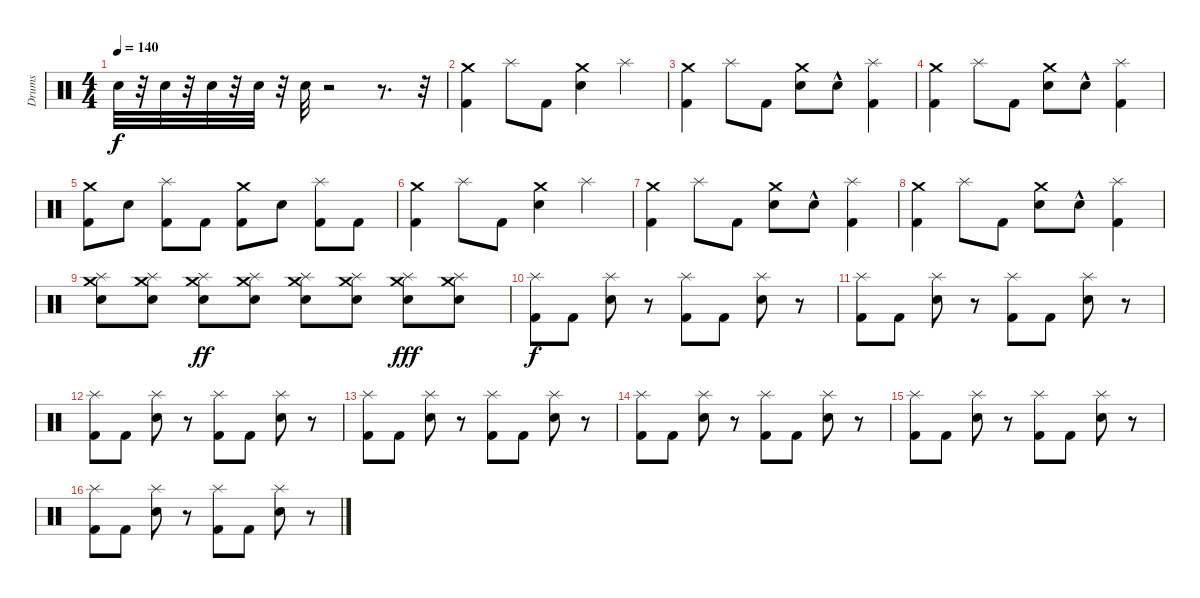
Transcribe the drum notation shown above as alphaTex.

\track ("Drums" "Drums") {instrument percussion}
\staff {score}
\articulation defaults
\ts (4 4)
\tempo 140
\clef neutral
\ks c "Snare (hit) 2".32{dy f}
r.32 "Snare (hit) 2".32 r.32 "Snare (hit) 2".32 r.32 "Snare (hit) 2".32 r.32 "Snare (hit) 2".32 r.2 r.8{d} r.32 |
("Crash medium (hit)" "Kick (hit) 2").4 "Splash (hit)".8 "Kick (hit) 2".8 ("Crash medium (hit)" "Snare (hit) 2").4 "Splash (hit)".4 |
("Crash medium (hit)" "Kick (hit) 2").4 "Splash (hit)".8 "Kick (hit) 2".8 ("Crash medium (hit)" "Snare (hit) 2").8 "Snare (hit) 2"{hac}.8 ("Splash (hit)" "Kick (hit) 2").4 |
("Crash medium (hit)" "Kick (hit) 2").4 "Splash (hit)".8 "Kick (hit) 2".8 ("Crash medium (hit)" "Snare (hit) 2").8 "Snare (hit) 2"{hac}.8 ("Splash (hit)" "Kick (hit) 2").4 |
("Crash medium (hit)" "Kick (hit) 2").8 "Snare (hit) 2".8 ("Splash (hit)" "Kick (hit) 2").8 "Kick (hit) 2".8 ("Crash medium (hit)" "Kick (hit) 2").8 "Snare (hit) 2".8 ("Splash (hit)" "Kick (hit) 2").8 "Kick (hit) 2".8 |
("Crash medium (hit)" "Kick (hit) 2").4 "Splash (hit)".8 "Kick (hit) 2".8 ("Crash medium (hit)" "Snare (hit) 2").4 "Splash (hit)".4 |
("Crash medium (hit)" "Kick (hit) 2").4 "Splash (hit)".8 "Kick (hit) 2".8 ("Crash medium (hit)" "Snare (hit) 2").8 "Snare (hit) 2"{hac}.8 ("Splash (hit)" "Kick (hit) 2").4 |
("Crash medium (hit)" "Kick (hit) 2").4 "Splash (hit)".8 "Kick (hit) 2".8 ("Crash medium (hit)" "Snare (hit) 2").8 "Snare (hit) 2"{hac}.8 ("Splash (hit)" "Kick (hit) 2").4 |
("Snare (hit) 2" "Splash (hit)" "Crash medium (hit)").8 ("Snare (hit) 2" "Splash (hit)" "Crash medium (hit)").8 ("Snare (hit) 2" "Splash (hit)" "Crash medium (hit)").8{dy ff} ("Snare (hit) 2" "Splash (hit)" "Crash medium (hit)").8 ("Snare (hit) 2" "Splash (hit)" "Crash medium (hit)").8 ("Snare (hit) 2" "Splash (hit)" "Crash medium (hit)").8 ("Snare (hit) 2" "Splash (hit)" "Crash medium (hit)").8{dy fff} ("Snare (hit) 2" "Splash (hit)" "Crash medium (hit)").8 |
("Splash (hit)" "Kick (hit) 2").8{dy f} "Kick (hit) 2".8 ("Splash (hit)" "Snare (hit) 2").8 r.8 ("Splash (hit)" "Kick (hit) 2").8 "Kick (hit) 2".8 ("Splash (hit)" "Snare (hit) 2").8 r.8 |
("Splash (hit)" "Kick (hit) 2").8 "Kick (hit) 2".8 ("Splash (hit)" "Snare (hit) 2").8 r.8 ("Splash (hit)" "Kick (hit) 2").8 "Kick (hit) 2".8 ("Splash (hit)" "Snare (hit) 2").8 r.8 |
("Splash (hit)" "Kick (hit) 2").8 "Kick (hit) 2".8 ("Splash (hit)" "Snare (hit) 2").8 r.8 ("Splash (hit)" "Kick (hit) 2").8 "Kick (hit) 2".8 ("Splash (hit)" "Snare (hit) 2").8 r.8 |
("Splash (hit)" "Kick (hit) 2").8 "Kick (hit) 2".8 ("Splash (hit)" "Snare (hit) 2").8 r.8 ("Splash (hit)" "Kick (hit) 2").8 "Kick (hit) 2".8 ("Splash (hit)" "Snare (hit) 2").8 r.8 |
("Splash (hit)" "Kick (hit) 2").8 "Kick (hit) 2".8 ("Splash (hit)" "Snare (hit) 2").8 r.8 ("Splash (hit)" "Kick (hit) 2").8 "Kick (hit) 2".8 ("Splash (hit)" "Snare (hit) 2").8 r.8 |
("Splash (hit)" "Kick (hit) 2").8 "Kick (hit) 2".8 ("Splash (hit)" "Snare (hit) 2").8 r.8 ("Splash (hit)" "Kick (hit) 2").8 "Kick (hit) 2".8 ("Splash (hit)" "Snare (hit) 2").8 r.8 |
("Splash (hit)" "Kick (hit) 2").8 "Kick (hit) 2".8 ("Splash (hit)" "Snare (hit) 2").8 r.8 ("Splash (hit)" "Kick (hit) 2").8 "Kick (hit) 2".8 ("Splash (hit)" "Snare (hit) 2").8 r.8
